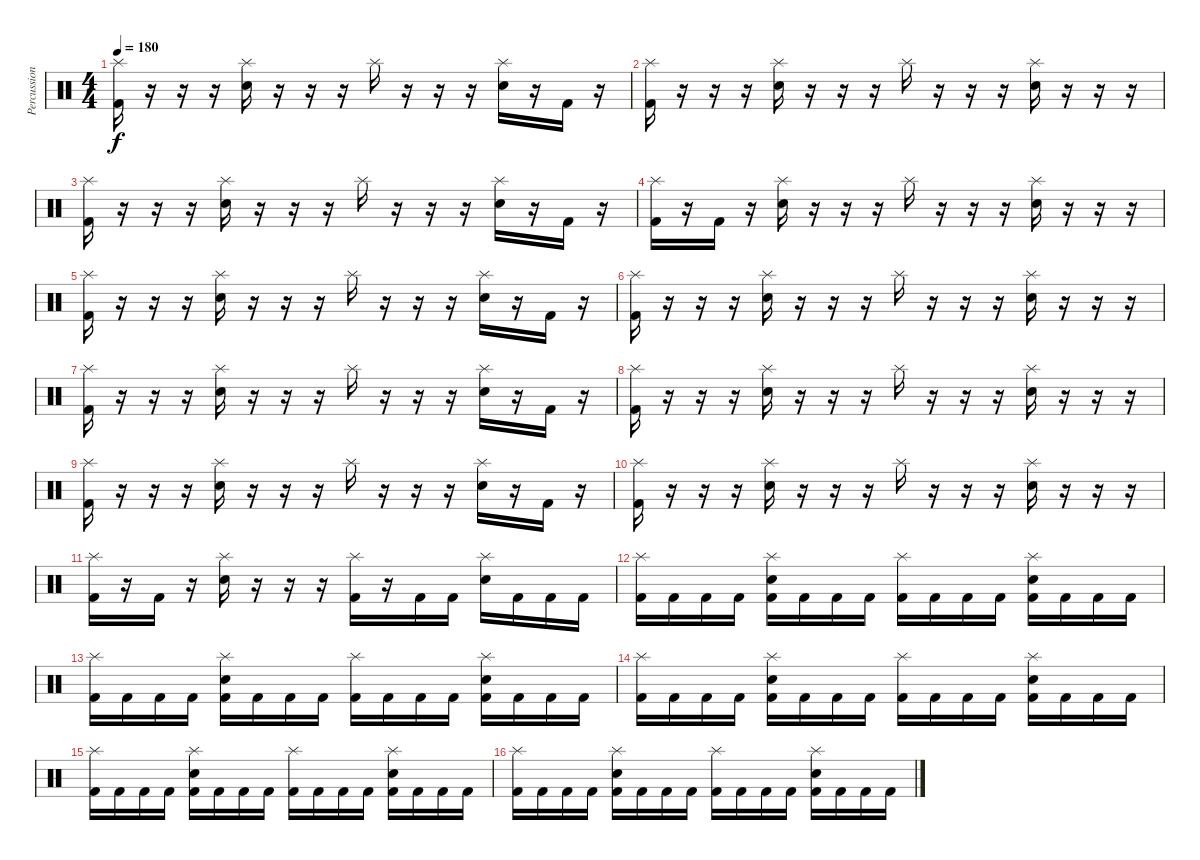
\track ("Percussion" "Percussion") {instrument percussion}
\staff {score}
\articulation defaults
\ts (4 4)
\tempo 180
\clef neutral
\ks c
("Splash (hit)" "Kick (hit) 2").16{dy f} r.16 r.16 r.16 ("Splash (hit)" "Snare (hit) 2").16 r.16 r.16 r.16 "Splash (hit)".16 r.16 r.16 r.16 ("Splash (hit)" "Snare (hit) 2").16 r.16 "Kick (hit) 2".16 r.16 |
("Splash (hit)" "Kick (hit) 2").16 r.16 r.16 r.16 ("Splash (hit)" "Snare (hit) 2").16 r.16 r.16 r.16 "Splash (hit)".16 r.16 r.16 r.16 ("Splash (hit)" "Snare (hit) 2").16 r.16 r.16 r.16 |
("Splash (hit)" "Kick (hit) 2").16 r.16 r.16 r.16 ("Splash (hit)" "Snare (hit) 2").16 r.16 r.16 r.16 "Splash (hit)".16 r.16 r.16 r.16 ("Splash (hit)" "Snare (hit) 2").16 r.16 "Kick (hit) 2".16 r.16 |
("Splash (hit)" "Kick (hit) 2").16 r.16 "Kick (hit) 2".16 r.16 ("Splash (hit)" "Snare (hit) 2").16 r.16 r.16 r.16 "Splash (hit)".16 r.16 r.16 r.16 ("Splash (hit)" "Snare (hit) 2").16 r.16 r.16 r.16 |
("Splash (hit)" "Kick (hit) 2").16 r.16 r.16 r.16 ("Splash (hit)" "Snare (hit) 2").16 r.16 r.16 r.16 "Splash (hit)".16 r.16 r.16 r.16 ("Splash (hit)" "Snare (hit) 2").16 r.16 "Kick (hit) 2".16 r.16 |
("Splash (hit)" "Kick (hit) 2").16 r.16 r.16 r.16 ("Splash (hit)" "Snare (hit) 2").16 r.16 r.16 r.16 "Splash (hit)".16 r.16 r.16 r.16 ("Splash (hit)" "Snare (hit) 2").16 r.16 r.16 r.16 |
("Splash (hit)" "Kick (hit) 2").16 r.16 r.16 r.16 ("Splash (hit)" "Snare (hit) 2").16 r.16 r.16 r.16 "Splash (hit)".16 r.16 r.16 r.16 ("Splash (hit)" "Snare (hit) 2").16 r.16 "Kick (hit) 2".16 r.16 |
("Splash (hit)" "Kick (hit) 2").16 r.16 r.16 r.16 ("Splash (hit)" "Snare (hit) 2").16 r.16 r.16 r.16 "Splash (hit)".16 r.16 r.16 r.16 ("Splash (hit)" "Snare (hit) 2").16 r.16 r.16 r.16 |
("Splash (hit)" "Kick (hit) 2").16 r.16 r.16 r.16 ("Splash (hit)" "Snare (hit) 2").16 r.16 r.16 r.16 "Splash (hit)".16 r.16 r.16 r.16 ("Splash (hit)" "Snare (hit) 2").16 r.16 "Kick (hit) 2".16 r.16 |
("Splash (hit)" "Kick (hit) 2").16 r.16 r.16 r.16 ("Splash (hit)" "Snare (hit) 2").16 r.16 r.16 r.16 "Splash (hit)".16 r.16 r.16 r.16 ("Splash (hit)" "Snare (hit) 2").16 r.16 r.16 r.16 |
("Splash (hit)" "Kick (hit) 2").16 r.16 "Kick (hit) 2".16 r.16 ("Splash (hit)" "Snare (hit) 2").16 r.16 r.16 r.16 ("Splash (hit)" "Kick (hit) 2").16 r.16 "Kick (hit) 2".16 "Kick (hit) 2".16 ("Splash (hit)" "Snare (hit) 2").16 "Kick (hit) 2".16 "Kick (hit) 2".16 "Kick (hit) 2".16 |
("Splash (hit)" "Kick (hit) 2").16 "Kick (hit) 2".16 "Kick (hit) 2".16 "Kick (hit) 2".16 ("Splash (hit)" "Snare (hit) 2" "Kick (hit) 2").16 "Kick (hit) 2".16 "Kick (hit) 2".16 "Kick (hit) 2".16 ("Splash (hit)" "Kick (hit) 2").16 "Kick (hit) 2".16 "Kick (hit) 2".16 "Kick (hit) 2".16 ("Splash (hit)" "Snare (hit) 2" "Kick (hit) 2").16 "Kick (hit) 2".16 "Kick (hit) 2".16 "Kick (hit) 2".16 |
("Splash (hit)" "Kick (hit) 2").16 "Kick (hit) 2".16 "Kick (hit) 2".16 "Kick (hit) 2".16 ("Splash (hit)" "Snare (hit) 2" "Kick (hit) 2").16 "Kick (hit) 2".16 "Kick (hit) 2".16 "Kick (hit) 2".16 ("Splash (hit)" "Kick (hit) 2").16 "Kick (hit) 2".16 "Kick (hit) 2".16 "Kick (hit) 2".16 ("Splash (hit)" "Snare (hit) 2" "Kick (hit) 2").16 "Kick (hit) 2".16 "Kick (hit) 2".16 "Kick (hit) 2".16 |
("Splash (hit)" "Kick (hit) 2").16 "Kick (hit) 2".16 "Kick (hit) 2".16 "Kick (hit) 2".16 ("Splash (hit)" "Snare (hit) 2" "Kick (hit) 2").16 "Kick (hit) 2".16 "Kick (hit) 2".16 "Kick (hit) 2".16 ("Splash (hit)" "Kick (hit) 2").16 "Kick (hit) 2".16 "Kick (hit) 2".16 "Kick (hit) 2".16 ("Splash (hit)" "Snare (hit) 2" "Kick (hit) 2").16 "Kick (hit) 2".16 "Kick (hit) 2".16 "Kick (hit) 2".16 |
("Splash (hit)" "Kick (hit) 2").16 "Kick (hit) 2".16 "Kick (hit) 2".16 "Kick (hit) 2".16 ("Splash (hit)" "Snare (hit) 2" "Kick (hit) 2").16 "Kick (hit) 2".16 "Kick (hit) 2".16 "Kick (hit) 2".16 ("Splash (hit)" "Kick (hit) 2").16 "Kick (hit) 2".16 "Kick (hit) 2".16 "Kick (hit) 2".16 ("Splash (hit)" "Snare (hit) 2" "Kick (hit) 2").16 "Kick (hit) 2".16 "Kick (hit) 2".16 "Kick (hit) 2".16 |
("Splash (hit)" "Kick (hit) 2").16 "Kick (hit) 2".16 "Kick (hit) 2".16 "Kick (hit) 2".16 ("Splash (hit)" "Snare (hit) 2" "Kick (hit) 2").16 "Kick (hit) 2".16 "Kick (hit) 2".16 "Kick (hit) 2".16 ("Splash (hit)" "Kick (hit) 2").16 "Kick (hit) 2".16 "Kick (hit) 2".16 "Kick (hit) 2".16 ("Splash (hit)" "Snare (hit) 2" "Kick (hit) 2").16 "Kick (hit) 2".16 "Kick (hit) 2".16 "Kick (hit) 2".16
